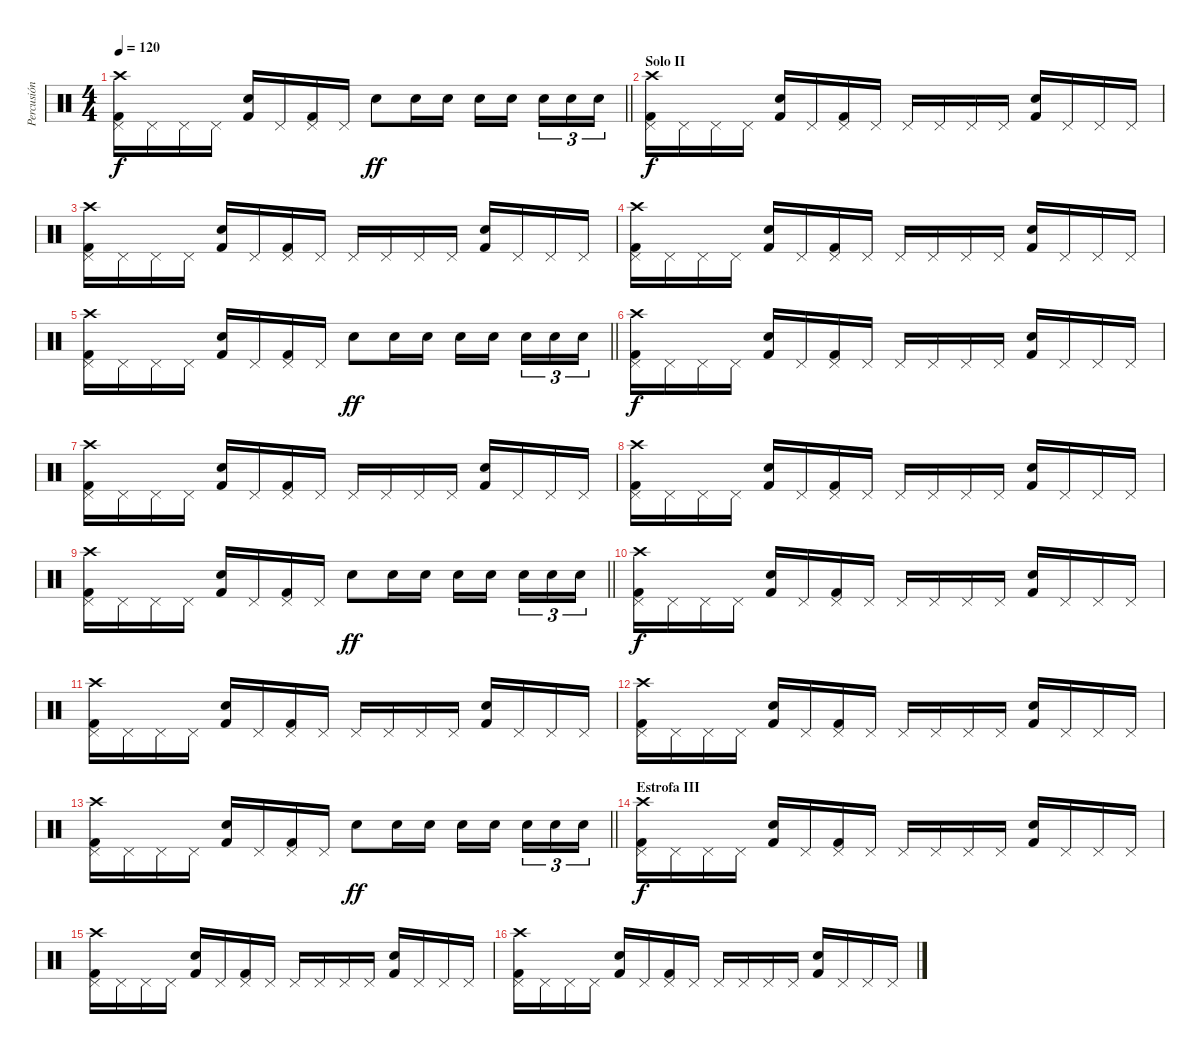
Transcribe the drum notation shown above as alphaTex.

\track ("Percusión" "Percusión") {instrument percussion}
\staff {score}
\articulation defaults
\ts (4 4)
\tempo 120
\clef neutral
\barLineRight lightlight
\ks c
("Pedal Hi-Hat (hit)" "Kick (hit) 2" "Crash high (hit)").16{dy f} "Pedal Hi-Hat (hit)".16 "Pedal Hi-Hat (hit)".16 "Pedal Hi-Hat (hit)".16 ("Snare (hit) 2" "Kick (hit) 2").16 "Pedal Hi-Hat (hit)".16 ("Pedal Hi-Hat (hit)" "Kick (hit) 2").16 "Pedal Hi-Hat (hit)".16 "Snare (hit) 2".8{dy ff} "Snare (hit) 2".16 "Snare (hit) 2".16 "Snare (hit) 2".16 "Snare (hit) 2".16{beam splitsecondary} "Snare (hit) 2".16{tu (3 2)} "Snare (hit) 2".16{tu (3 2)} "Snare (hit) 2".16{tu (3 2)} |
\section ("" "Solo II")
("Pedal Hi-Hat (hit)" "Kick (hit) 2" "Crash high (hit)").16{dy f} "Pedal Hi-Hat (hit)".16 "Pedal Hi-Hat (hit)".16 "Pedal Hi-Hat (hit)".16 ("Snare (hit) 2" "Kick (hit) 2").16 "Pedal Hi-Hat (hit)".16 ("Pedal Hi-Hat (hit)" "Kick (hit) 2").16 "Pedal Hi-Hat (hit)".16 "Pedal Hi-Hat (hit)".16 "Pedal Hi-Hat (hit)".16 "Pedal Hi-Hat (hit)".16 "Pedal Hi-Hat (hit)".16 ("Snare (hit) 2" "Kick (hit) 2").16 "Pedal Hi-Hat (hit)".16 "Pedal Hi-Hat (hit)".16 "Pedal Hi-Hat (hit)".16 |
("Pedal Hi-Hat (hit)" "Kick (hit) 2" "Crash high (hit)").16 "Pedal Hi-Hat (hit)".16 "Pedal Hi-Hat (hit)".16 "Pedal Hi-Hat (hit)".16 ("Snare (hit) 2" "Kick (hit) 2").16 "Pedal Hi-Hat (hit)".16 ("Pedal Hi-Hat (hit)" "Kick (hit) 2").16 "Pedal Hi-Hat (hit)".16 "Pedal Hi-Hat (hit)".16 "Pedal Hi-Hat (hit)".16 "Pedal Hi-Hat (hit)".16 "Pedal Hi-Hat (hit)".16 ("Snare (hit) 2" "Kick (hit) 2").16 "Pedal Hi-Hat (hit)".16 "Pedal Hi-Hat (hit)".16 "Pedal Hi-Hat (hit)".16 |
("Pedal Hi-Hat (hit)" "Kick (hit) 2" "Crash high (hit)").16 "Pedal Hi-Hat (hit)".16 "Pedal Hi-Hat (hit)".16 "Pedal Hi-Hat (hit)".16 ("Snare (hit) 2" "Kick (hit) 2").16 "Pedal Hi-Hat (hit)".16 ("Pedal Hi-Hat (hit)" "Kick (hit) 2").16 "Pedal Hi-Hat (hit)".16 "Pedal Hi-Hat (hit)".16 "Pedal Hi-Hat (hit)".16 "Pedal Hi-Hat (hit)".16 "Pedal Hi-Hat (hit)".16 ("Snare (hit) 2" "Kick (hit) 2").16 "Pedal Hi-Hat (hit)".16 "Pedal Hi-Hat (hit)".16 "Pedal Hi-Hat (hit)".16 |
\barLineRight lightlight
("Pedal Hi-Hat (hit)" "Kick (hit) 2" "Crash high (hit)").16 "Pedal Hi-Hat (hit)".16 "Pedal Hi-Hat (hit)".16 "Pedal Hi-Hat (hit)".16 ("Snare (hit) 2" "Kick (hit) 2").16 "Pedal Hi-Hat (hit)".16 ("Pedal Hi-Hat (hit)" "Kick (hit) 2").16 "Pedal Hi-Hat (hit)".16 "Snare (hit) 2".8{dy ff} "Snare (hit) 2".16 "Snare (hit) 2".16 "Snare (hit) 2".16 "Snare (hit) 2".16{beam splitsecondary} "Snare (hit) 2".16{tu (3 2)} "Snare (hit) 2".16{tu (3 2)} "Snare (hit) 2".16{tu (3 2)} |
("Pedal Hi-Hat (hit)" "Kick (hit) 2" "Crash high (hit)").16{dy f} "Pedal Hi-Hat (hit)".16 "Pedal Hi-Hat (hit)".16 "Pedal Hi-Hat (hit)".16 ("Snare (hit) 2" "Kick (hit) 2").16 "Pedal Hi-Hat (hit)".16 ("Pedal Hi-Hat (hit)" "Kick (hit) 2").16 "Pedal Hi-Hat (hit)".16 "Pedal Hi-Hat (hit)".16 "Pedal Hi-Hat (hit)".16 "Pedal Hi-Hat (hit)".16 "Pedal Hi-Hat (hit)".16 ("Snare (hit) 2" "Kick (hit) 2").16 "Pedal Hi-Hat (hit)".16 "Pedal Hi-Hat (hit)".16 "Pedal Hi-Hat (hit)".16 |
("Pedal Hi-Hat (hit)" "Kick (hit) 2" "Crash high (hit)").16 "Pedal Hi-Hat (hit)".16 "Pedal Hi-Hat (hit)".16 "Pedal Hi-Hat (hit)".16 ("Snare (hit) 2" "Kick (hit) 2").16 "Pedal Hi-Hat (hit)".16 ("Pedal Hi-Hat (hit)" "Kick (hit) 2").16 "Pedal Hi-Hat (hit)".16 "Pedal Hi-Hat (hit)".16 "Pedal Hi-Hat (hit)".16 "Pedal Hi-Hat (hit)".16 "Pedal Hi-Hat (hit)".16 ("Snare (hit) 2" "Kick (hit) 2").16 "Pedal Hi-Hat (hit)".16 "Pedal Hi-Hat (hit)".16 "Pedal Hi-Hat (hit)".16 |
("Pedal Hi-Hat (hit)" "Kick (hit) 2" "Crash high (hit)").16 "Pedal Hi-Hat (hit)".16 "Pedal Hi-Hat (hit)".16 "Pedal Hi-Hat (hit)".16 ("Snare (hit) 2" "Kick (hit) 2").16 "Pedal Hi-Hat (hit)".16 ("Pedal Hi-Hat (hit)" "Kick (hit) 2").16 "Pedal Hi-Hat (hit)".16 "Pedal Hi-Hat (hit)".16 "Pedal Hi-Hat (hit)".16 "Pedal Hi-Hat (hit)".16 "Pedal Hi-Hat (hit)".16 ("Snare (hit) 2" "Kick (hit) 2").16 "Pedal Hi-Hat (hit)".16 "Pedal Hi-Hat (hit)".16 "Pedal Hi-Hat (hit)".16 |
\barLineRight lightlight
("Pedal Hi-Hat (hit)" "Kick (hit) 2" "Crash high (hit)").16 "Pedal Hi-Hat (hit)".16 "Pedal Hi-Hat (hit)".16 "Pedal Hi-Hat (hit)".16 ("Snare (hit) 2" "Kick (hit) 2").16 "Pedal Hi-Hat (hit)".16 ("Pedal Hi-Hat (hit)" "Kick (hit) 2").16 "Pedal Hi-Hat (hit)".16 "Snare (hit) 2".8{dy ff} "Snare (hit) 2".16 "Snare (hit) 2".16 "Snare (hit) 2".16 "Snare (hit) 2".16{beam splitsecondary} "Snare (hit) 2".16{tu (3 2)} "Snare (hit) 2".16{tu (3 2)} "Snare (hit) 2".16{tu (3 2)} |
("Pedal Hi-Hat (hit)" "Kick (hit) 2" "Crash high (hit)").16{dy f} "Pedal Hi-Hat (hit)".16 "Pedal Hi-Hat (hit)".16 "Pedal Hi-Hat (hit)".16 ("Snare (hit) 2" "Kick (hit) 2").16 "Pedal Hi-Hat (hit)".16 ("Pedal Hi-Hat (hit)" "Kick (hit) 2").16 "Pedal Hi-Hat (hit)".16 "Pedal Hi-Hat (hit)".16 "Pedal Hi-Hat (hit)".16 "Pedal Hi-Hat (hit)".16 "Pedal Hi-Hat (hit)".16 ("Snare (hit) 2" "Kick (hit) 2").16 "Pedal Hi-Hat (hit)".16 "Pedal Hi-Hat (hit)".16 "Pedal Hi-Hat (hit)".16 |
("Pedal Hi-Hat (hit)" "Kick (hit) 2" "Crash high (hit)").16 "Pedal Hi-Hat (hit)".16 "Pedal Hi-Hat (hit)".16 "Pedal Hi-Hat (hit)".16 ("Snare (hit) 2" "Kick (hit) 2").16 "Pedal Hi-Hat (hit)".16 ("Pedal Hi-Hat (hit)" "Kick (hit) 2").16 "Pedal Hi-Hat (hit)".16 "Pedal Hi-Hat (hit)".16 "Pedal Hi-Hat (hit)".16 "Pedal Hi-Hat (hit)".16 "Pedal Hi-Hat (hit)".16 ("Snare (hit) 2" "Kick (hit) 2").16 "Pedal Hi-Hat (hit)".16 "Pedal Hi-Hat (hit)".16 "Pedal Hi-Hat (hit)".16 |
("Pedal Hi-Hat (hit)" "Kick (hit) 2" "Crash high (hit)").16 "Pedal Hi-Hat (hit)".16 "Pedal Hi-Hat (hit)".16 "Pedal Hi-Hat (hit)".16 ("Snare (hit) 2" "Kick (hit) 2").16 "Pedal Hi-Hat (hit)".16 ("Pedal Hi-Hat (hit)" "Kick (hit) 2").16 "Pedal Hi-Hat (hit)".16 "Pedal Hi-Hat (hit)".16 "Pedal Hi-Hat (hit)".16 "Pedal Hi-Hat (hit)".16 "Pedal Hi-Hat (hit)".16 ("Snare (hit) 2" "Kick (hit) 2").16 "Pedal Hi-Hat (hit)".16 "Pedal Hi-Hat (hit)".16 "Pedal Hi-Hat (hit)".16 |
\barLineRight lightlight
("Pedal Hi-Hat (hit)" "Kick (hit) 2" "Crash high (hit)").16 "Pedal Hi-Hat (hit)".16 "Pedal Hi-Hat (hit)".16 "Pedal Hi-Hat (hit)".16 ("Snare (hit) 2" "Kick (hit) 2").16 "Pedal Hi-Hat (hit)".16 ("Pedal Hi-Hat (hit)" "Kick (hit) 2").16 "Pedal Hi-Hat (hit)".16 "Snare (hit) 2".8{dy ff} "Snare (hit) 2".16 "Snare (hit) 2".16 "Snare (hit) 2".16 "Snare (hit) 2".16{beam splitsecondary} "Snare (hit) 2".16{tu (3 2)} "Snare (hit) 2".16{tu (3 2)} "Snare (hit) 2".16{tu (3 2)} |
\section ("" "Estrofa III")
("Pedal Hi-Hat (hit)" "Kick (hit) 2" "Crash high (hit)").16{dy f} "Pedal Hi-Hat (hit)".16 "Pedal Hi-Hat (hit)".16 "Pedal Hi-Hat (hit)".16 ("Snare (hit) 2" "Kick (hit) 2").16 "Pedal Hi-Hat (hit)".16 ("Pedal Hi-Hat (hit)" "Kick (hit) 2").16 "Pedal Hi-Hat (hit)".16 "Pedal Hi-Hat (hit)".16 "Pedal Hi-Hat (hit)".16 "Pedal Hi-Hat (hit)".16 "Pedal Hi-Hat (hit)".16 ("Snare (hit) 2" "Kick (hit) 2").16 "Pedal Hi-Hat (hit)".16 "Pedal Hi-Hat (hit)".16 "Pedal Hi-Hat (hit)".16 |
("Pedal Hi-Hat (hit)" "Kick (hit) 2" "Crash high (hit)").16 "Pedal Hi-Hat (hit)".16 "Pedal Hi-Hat (hit)".16 "Pedal Hi-Hat (hit)".16 ("Snare (hit) 2" "Kick (hit) 2").16 "Pedal Hi-Hat (hit)".16 ("Pedal Hi-Hat (hit)" "Kick (hit) 2").16 "Pedal Hi-Hat (hit)".16 "Pedal Hi-Hat (hit)".16 "Pedal Hi-Hat (hit)".16 "Pedal Hi-Hat (hit)".16 "Pedal Hi-Hat (hit)".16 ("Snare (hit) 2" "Kick (hit) 2").16 "Pedal Hi-Hat (hit)".16 "Pedal Hi-Hat (hit)".16 "Pedal Hi-Hat (hit)".16 |
("Pedal Hi-Hat (hit)" "Kick (hit) 2" "Crash high (hit)").16 "Pedal Hi-Hat (hit)".16 "Pedal Hi-Hat (hit)".16 "Pedal Hi-Hat (hit)".16 ("Snare (hit) 2" "Kick (hit) 2").16 "Pedal Hi-Hat (hit)".16 ("Pedal Hi-Hat (hit)" "Kick (hit) 2").16 "Pedal Hi-Hat (hit)".16 "Pedal Hi-Hat (hit)".16 "Pedal Hi-Hat (hit)".16 "Pedal Hi-Hat (hit)".16 "Pedal Hi-Hat (hit)".16 ("Snare (hit) 2" "Kick (hit) 2").16 "Pedal Hi-Hat (hit)".16 "Pedal Hi-Hat (hit)".16 "Pedal Hi-Hat (hit)".16
